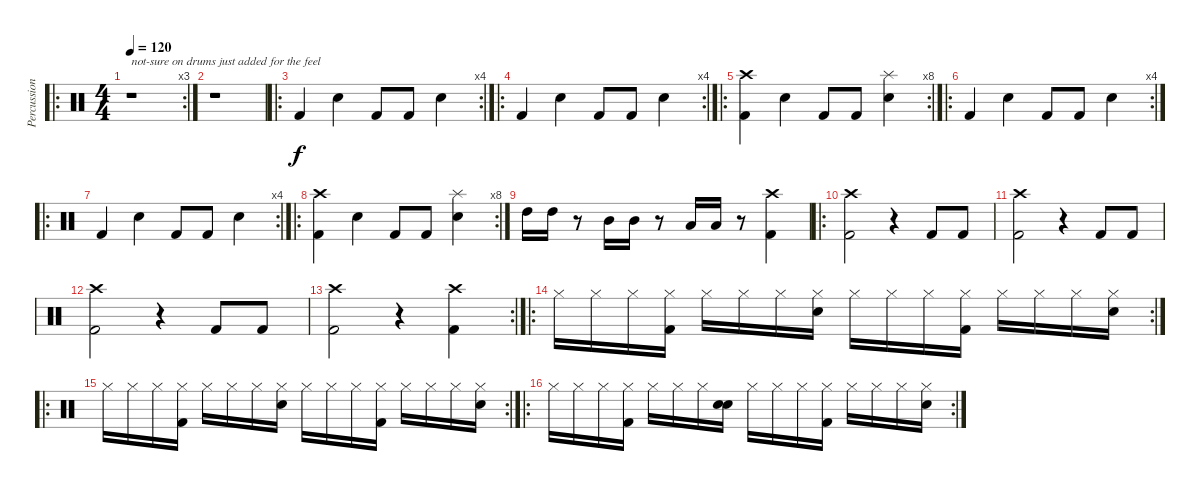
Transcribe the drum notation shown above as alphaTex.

\track ("Percussion" "Percussion") {instrument percussion}
\staff {score}
\articulation defaults
\ro
\rc 3
\ts (4 4)
\tempo 120
\clef neutral
\ks c
r.1{txt "not-sure on drums just added for the feel" dy f} |
r.1 |
\ro
\rc 4 "Kick (hit) 2".4 "Snare (hit) 2".4 "Kick (hit) 2".8 "Kick (hit) 2".8 "Snare (hit) 2".4
|
\ro
\rc 4 "Kick (hit) 2".4 "Snare (hit) 2".4 "Kick (hit) 2".8 "Kick (hit) 2".8 "Snare (hit) 2".4
|
\ro
\rc 8
("Crash high (hit)" "Kick (hit) 2").4 "Snare (hit) 2".4 "Kick (hit) 2".8 "Kick (hit) 2".8 ("Splash (hit)" "Snare (hit) 2").4 |
\ro
\rc 4 "Kick (hit) 2".4 "Snare (hit) 2".4 "Kick (hit) 2".8 "Kick (hit) 2".8 "Snare (hit) 2".4
|
\ro
\rc 4 "Kick (hit) 2".4 "Snare (hit) 2".4 "Kick (hit) 2".8 "Kick (hit) 2".8 "Snare (hit) 2".4
|
\ro
\rc 8
("Crash high (hit)" "Kick (hit) 2").4 "Snare (hit) 2".4 "Kick (hit) 2".8 "Kick (hit) 2".8 ("Splash (hit)" "Snare (hit) 2").4 |
"High Tom (hit)".16 "High Tom (hit)".16 r.8 "Mid Tom (hit)".16 "Mid Tom (hit)".16 r.8 "Low Tom (hit)".16 "Low Tom (hit)".16 r.8 ("Crash high (hit)" "Kick (hit) 2").4 |
\ro
("Crash high (hit)" "Kick (hit) 2").2 r.4 "Kick (hit) 2".8 "Kick (hit) 2".8 |
("Crash high (hit)" "Kick (hit) 2").2 r.4 "Kick (hit) 2".8 "Kick (hit) 2".8 |
("Crash high (hit)" "Kick (hit) 2").2 r.4 "Kick (hit) 2".8 "Kick (hit) 2".8 |
\rc 2
("Crash high (hit)" "Kick (hit) 2").2 r.4 ("Crash high (hit)" "Kick (hit) 2").4{volume 16 balance 14} |
\ro
\rc 2 "Hi-Hat (closed)".16 "Hi-Hat (closed)".16 "Hi-Hat (closed)".16
("Kick (hit) 2" "Hi-Hat (closed)").16 "Hi-Hat (closed)".16 "Hi-Hat (closed)".16 "Hi-Hat (closed)".16 ("Snare (hit) 2" "Hi-Hat (closed)").16 "Hi-Hat (closed)".16 "Hi-Hat (closed)".16 "Hi-Hat (closed)".16 ("Kick (hit) 2" "Hi-Hat (closed)").16 "Hi-Hat (closed)".16 "Hi-Hat (closed)".16 "Hi-Hat (closed)".16 ("Snare (hit) 2" "Hi-Hat (closed)").16 |
\ro
\rc 2 "Hi-Hat (closed)".16 "Hi-Hat (closed)".16 "Hi-Hat (closed)".16
("Kick (hit) 2" "Hi-Hat (closed)").16 "Hi-Hat (closed)".16 "Hi-Hat (closed)".16 "Hi-Hat (closed)".16 ("Snare (hit) 2" "Hi-Hat (closed)").16 "Hi-Hat (closed)".16 "Hi-Hat (closed)".16 "Hi-Hat (closed)".16 ("Kick (hit) 2" "Hi-Hat (closed)").16 "Hi-Hat (closed)".16 "Hi-Hat (closed)".16 "Hi-Hat (closed)".16 ("Snare (hit) 2" "Hi-Hat (closed)").16 |
\ro
\rc 2 "Hi-Hat (closed)".16 "Hi-Hat (closed)".16 "Hi-Hat (closed)".16
("Kick (hit) 2" "Hi-Hat (closed)").16 "Hi-Hat (closed)".16 "Hi-Hat (closed)".16 "Hi-Hat (closed)".16 ("Snare (hit) 2" "Snare (hit)").16 "Hi-Hat (closed)".16 "Hi-Hat (closed)".16 "Hi-Hat (closed)".16 ("Kick (hit) 2" "Hi-Hat (closed)").16 "Hi-Hat (closed)".16 "Hi-Hat (closed)".16 "Hi-Hat (closed)".16 ("Snare (hit) 2" "Hi-Hat (closed)").16
